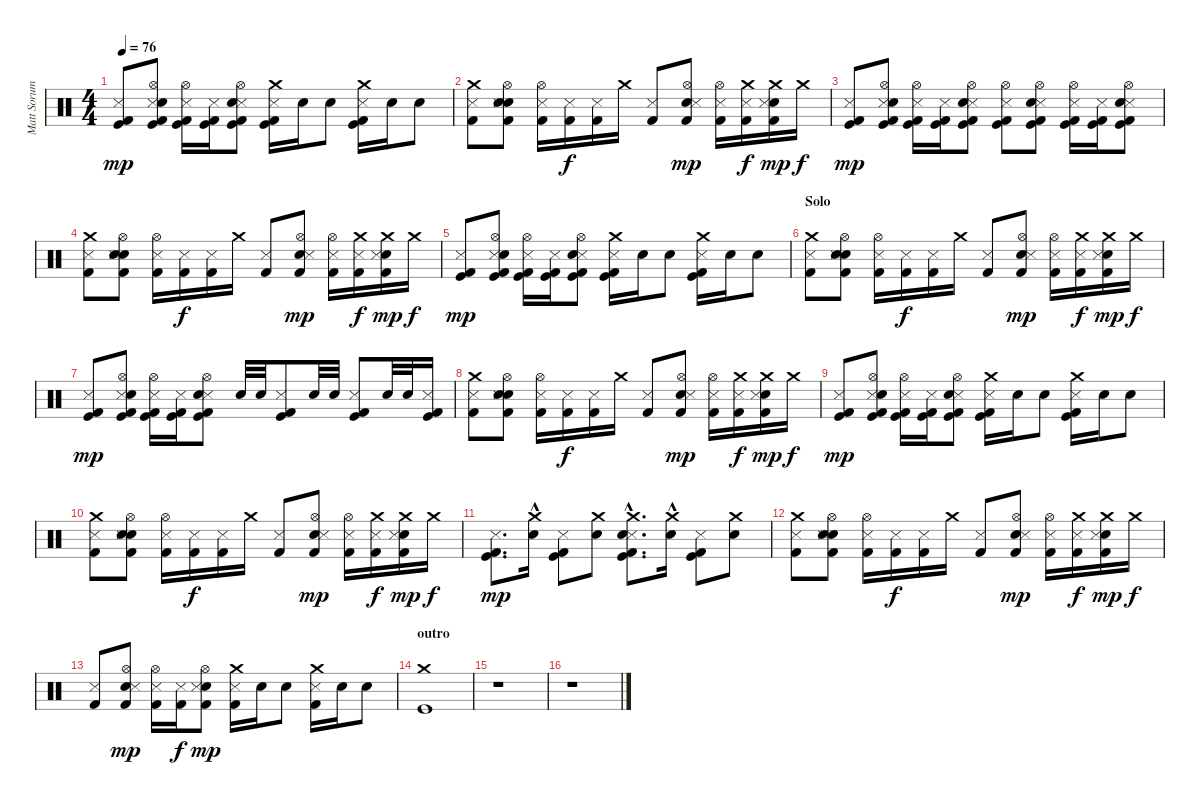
\track ("Matt Sorum" "Matt Sorum") {instrument percussion}
\staff {score}
\articulation defaults
\ts (4 4)
\tempo 76
\clef neutral
\ks c
("Metronome (hit)" "Kick (hit)" "Kick (hit) 2").8{dy mp} ("Hi-Hat (open)" "Metronome (hit)" "Kick (hit)" "Kick (hit) 2" "Snare (hit) 2").8 ("Hi-Hat (open)" "Metronome (hit)" "Kick (hit)" "Kick (hit) 2").16 ("Metronome (hit)" "Kick (hit)" "Kick (hit) 2").16 ("Hi-Hat (open)" "Metronome (hit)" "Kick (hit)" "Kick (hit) 2" "Snare (hit) 2").8 ("Crash medium (hit)" "Metronome (hit)" "Kick (hit)" "Kick (hit) 2").16 "Snare (hit) 2".16 "Snare (hit) 2".8 ("Crash medium (hit)" "Metronome (hit)" "Kick (hit)" "Kick (hit) 2").16 "Snare (hit) 2".16 "Snare (hit) 2".8 |
("Metronome (hit)" "Kick (hit) 2" "Crash medium (hit)").8 ("Snare (hit) 2" "Metronome (hit)" "Kick (hit) 2" "Snare (hit) 2" "Hi-Hat (open)").8 ("Metronome (hit)" "Kick (hit) 2" "Hi-Hat (open)").16 ("Metronome (hit)" "Kick (hit) 2").16{dy f} ("Metronome (hit)" "Kick (hit) 2").16 "Crash medium (hit)".16 ("Metronome (hit)" "Kick (hit) 2").8 ("Snare (hit) 2" "Metronome (hit)" "Kick (hit) 2" "Hi-Hat (open)").8{dy mp} ("Metronome (hit)" "Kick (hit) 2" "Hi-Hat (open)").16 ("Metronome (hit)" "Kick (hit) 2" "Crash medium (hit)").16{dy f} ("Snare (hit) 2" "Metronome (hit)" "Kick (hit) 2" "Crash medium (hit)").16{dy mp} "Crash medium (hit)".16{dy f} |
("Metronome (hit)" "Kick (hit)" "Kick (hit) 2").8{dy mp} ("Hi-Hat (open)" "Metronome (hit)" "Kick (hit)" "Kick (hit) 2" "Snare (hit) 2").8 ("Hi-Hat (open)" "Metronome (hit)" "Kick (hit)" "Kick (hit) 2").16 ("Metronome (hit)" "Kick (hit)" "Kick (hit) 2").16 ("Hi-Hat (open)" "Metronome (hit)" "Kick (hit)" "Kick (hit) 2" "Snare (hit) 2").8 ("Hi-Hat (open)" "Metronome (hit)" "Kick (hit)" "Kick (hit) 2").8 ("Hi-Hat (open)" "Metronome (hit)" "Kick (hit)" "Kick (hit) 2" "Snare (hit) 2").8 ("Hi-Hat (open)" "Metronome (hit)" "Kick (hit)" "Kick (hit) 2").16 ("Metronome (hit)" "Kick (hit)" "Kick (hit) 2").16 ("Hi-Hat (open)" "Metronome (hit)" "Kick (hit)" "Kick (hit) 2" "Snare (hit) 2").8 |
("Metronome (hit)" "Kick (hit) 2" "Crash medium (hit)").8 ("Snare (hit) 2" "Metronome (hit)" "Kick (hit) 2" "Snare (hit) 2" "Hi-Hat (open)").8 ("Metronome (hit)" "Kick (hit) 2" "Hi-Hat (open)").16 ("Metronome (hit)" "Kick (hit) 2").16{dy f} ("Metronome (hit)" "Kick (hit) 2").16 "Crash medium (hit)".16 ("Metronome (hit)" "Kick (hit) 2").8 ("Snare (hit) 2" "Metronome (hit)" "Kick (hit) 2" "Hi-Hat (open)").8{dy mp} ("Metronome (hit)" "Kick (hit) 2" "Hi-Hat (open)").16 ("Metronome (hit)" "Kick (hit) 2" "Crash medium (hit)").16{dy f} ("Snare (hit) 2" "Metronome (hit)" "Kick (hit) 2" "Crash medium (hit)").16{dy mp} "Crash medium (hit)".16{dy f} |
("Metronome (hit)" "Kick (hit)" "Kick (hit) 2").8{dy mp} ("Hi-Hat (open)" "Metronome (hit)" "Kick (hit)" "Kick (hit) 2" "Snare (hit) 2").8 ("Hi-Hat (open)" "Metronome (hit)" "Kick (hit)" "Kick (hit) 2").16 ("Metronome (hit)" "Kick (hit)" "Kick (hit) 2").16 ("Hi-Hat (open)" "Metronome (hit)" "Kick (hit)" "Kick (hit) 2" "Snare (hit) 2").8 ("Crash medium (hit)" "Metronome (hit)" "Kick (hit)" "Kick (hit) 2").16 "Snare (hit) 2".16 "Snare (hit) 2".8 ("Crash medium (hit)" "Metronome (hit)" "Kick (hit)" "Kick (hit) 2").16 "Snare (hit) 2".16 "Snare (hit) 2".8 |
\section ("" "Solo")
("Metronome (hit)" "Kick (hit) 2" "Crash medium (hit)").8 ("Snare (hit) 2" "Metronome (hit)" "Kick (hit) 2" "Snare (hit) 2" "Hi-Hat (open)").8 ("Metronome (hit)" "Kick (hit) 2" "Hi-Hat (open)").16 ("Metronome (hit)" "Kick (hit) 2").16{dy f} ("Metronome (hit)" "Kick (hit) 2").16 "Crash medium (hit)".16 ("Metronome (hit)" "Kick (hit) 2").8 ("Snare (hit) 2" "Metronome (hit)" "Kick (hit) 2" "Hi-Hat (open)").8{dy mp} ("Metronome (hit)" "Kick (hit) 2" "Hi-Hat (open)").16 ("Metronome (hit)" "Kick (hit) 2" "Crash medium (hit)").16{dy f} ("Snare (hit) 2" "Metronome (hit)" "Kick (hit) 2" "Crash medium (hit)").16{dy mp} "Crash medium (hit)".16{dy f} |
("Metronome (hit)" "Kick (hit)" "Kick (hit) 2").8{dy mp} ("Hi-Hat (open)" "Metronome (hit)" "Kick (hit)" "Kick (hit) 2" "Snare (hit) 2").8 ("Hi-Hat (open)" "Metronome (hit)" "Kick (hit)" "Kick (hit) 2").16 ("Metronome (hit)" "Kick (hit)" "Kick (hit) 2").16 ("Hi-Hat (open)" "Metronome (hit)" "Kick (hit)" "Kick (hit) 2" "Snare (hit) 2").8 "Snare (hit) 2".32 "Snare (hit) 2".32 ("Metronome (hit)" "Kick (hit)" "Kick (hit) 2").8 "Snare (hit) 2".32 "Snare (hit) 2".32 ("Metronome (hit)" "Kick (hit)" "Kick (hit) 2").8 "Snare (hit) 2".32 "Snare (hit) 2".32 ("Metronome (hit)" "Kick (hit)" "Kick (hit) 2").16 |
("Metronome (hit)" "Kick (hit) 2" "Crash medium (hit)").8 ("Snare (hit) 2" "Metronome (hit)" "Kick (hit) 2" "Snare (hit) 2" "Hi-Hat (open)").8 ("Metronome (hit)" "Kick (hit) 2" "Hi-Hat (open)").16 ("Metronome (hit)" "Kick (hit) 2").16{dy f} ("Metronome (hit)" "Kick (hit) 2").16 "Crash medium (hit)".16 ("Metronome (hit)" "Kick (hit) 2").8 ("Snare (hit) 2" "Metronome (hit)" "Kick (hit) 2" "Hi-Hat (open)").8{dy mp} ("Metronome (hit)" "Kick (hit) 2" "Hi-Hat (open)").16 ("Metronome (hit)" "Kick (hit) 2" "Crash medium (hit)").16{dy f} ("Snare (hit) 2" "Metronome (hit)" "Kick (hit) 2" "Crash medium (hit)").16{dy mp} "Crash medium (hit)".16{dy f} |
("Metronome (hit)" "Kick (hit)" "Kick (hit) 2").8{dy mp} ("Hi-Hat (open)" "Metronome (hit)" "Kick (hit)" "Kick (hit) 2" "Snare (hit) 2").8 ("Hi-Hat (open)" "Metronome (hit)" "Kick (hit)" "Kick (hit) 2").16 ("Metronome (hit)" "Kick (hit)" "Kick (hit) 2").16 ("Hi-Hat (open)" "Metronome (hit)" "Kick (hit)" "Kick (hit) 2" "Snare (hit) 2").8 ("Crash medium (hit)" "Metronome (hit)" "Kick (hit)" "Kick (hit) 2").16 "Snare (hit) 2".16 "Snare (hit) 2".8 ("Crash medium (hit)" "Metronome (hit)" "Kick (hit)" "Kick (hit) 2").16 "Snare (hit) 2".16 "Snare (hit) 2".8 |
("Metronome (hit)" "Kick (hit) 2" "Crash medium (hit)").8 ("Snare (hit) 2" "Metronome (hit)" "Kick (hit) 2" "Snare (hit) 2" "Hi-Hat (open)").8 ("Metronome (hit)" "Kick (hit) 2" "Hi-Hat (open)").16 ("Metronome (hit)" "Kick (hit) 2").16{dy f} ("Metronome (hit)" "Kick (hit) 2").16 "Crash medium (hit)".16 ("Metronome (hit)" "Kick (hit) 2").8 ("Snare (hit) 2" "Metronome (hit)" "Kick (hit) 2" "Hi-Hat (open)").8{dy mp} ("Metronome (hit)" "Kick (hit) 2" "Hi-Hat (open)").16 ("Metronome (hit)" "Kick (hit) 2" "Crash medium (hit)").16{dy f} ("Snare (hit) 2" "Metronome (hit)" "Kick (hit) 2" "Crash medium (hit)").16{dy mp} "Crash medium (hit)".16{dy f} |
("Metronome (hit)" "Kick (hit)" "Kick (hit) 2").8{d dy mp} ("Snare (hit) 2"{hac} "Crash medium (hit)"{hac}).16 ("Metronome (hit)" "Kick (hit)" "Kick (hit) 2").8 ("Snare (hit) 2" "Crash medium (hit)").8 ("Metronome (hit)" "Kick (hit)" "Kick (hit) 2" "Snare (hit) 2"{hac} "Crash medium (hit)"{hac}).8{d} ("Snare (hit) 2"{hac} "Crash medium (hit)"{hac}).16 ("Metronome (hit)" "Kick (hit)" "Kick (hit) 2").8 ("Snare (hit) 2" "Crash medium (hit)").8 |
("Metronome (hit)" "Kick (hit) 2" "Crash medium (hit)").8 ("Snare (hit) 2" "Metronome (hit)" "Kick (hit) 2" "Snare (hit) 2" "Hi-Hat (open)").8 ("Metronome (hit)" "Kick (hit) 2" "Hi-Hat (open)").16 ("Metronome (hit)" "Kick (hit) 2").16{dy f} ("Metronome (hit)" "Kick (hit) 2").16 "Crash medium (hit)".16 ("Metronome (hit)" "Kick (hit) 2").8 ("Snare (hit) 2" "Metronome (hit)" "Kick (hit) 2" "Hi-Hat (open)").8{dy mp} ("Metronome (hit)" "Kick (hit) 2" "Hi-Hat (open)").16 ("Metronome (hit)" "Kick (hit) 2" "Crash medium (hit)").16{dy f} ("Snare (hit) 2" "Metronome (hit)" "Kick (hit) 2" "Crash medium (hit)").16{dy mp} "Crash medium (hit)".16{dy f} |
("Metronome (hit)" "Kick (hit) 2").8 ("Snare (hit) 2" "Metronome (hit)" "Kick (hit) 2" "Hi-Hat (open)").8{dy mp} ("Metronome (hit)" "Kick (hit) 2" "Hi-Hat (open)").16 ("Metronome (hit)" "Kick (hit) 2").16{dy f} ("Snare (hit) 2" "Metronome (hit)" "Kick (hit) 2" "Hi-Hat (open)").8{dy mp} ("Metronome (hit)" "Kick (hit) 2" "Crash medium (hit)").16 "Snare (hit) 2".16 "Snare (hit) 2".8 ("Metronome (hit)" "Kick (hit) 2" "Crash medium (hit)").16 "Snare (hit) 2".16 "Snare (hit) 2".8 |
\section ("" "outro")
("Kick (hit)" "Crash medium (hit)").1 |
r.1 |
r.1
